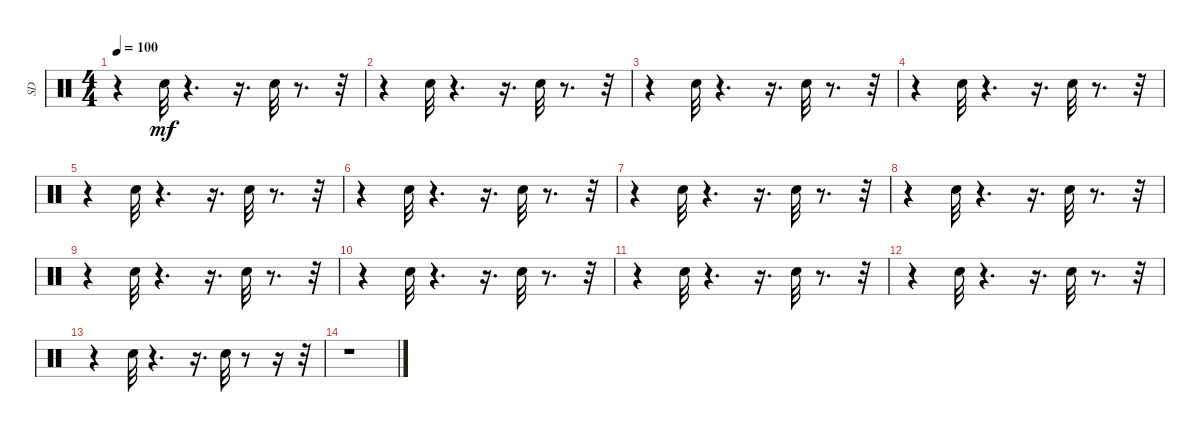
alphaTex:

\track ("SD" "SD") {instrument percussion}
\staff {score}
\articulation defaults
\ts (4 4)
\tempo 100
\clef neutral
\ks c
r.4{dy mf} "Metronome (bell)".32 r.4{d} r.16{d} "Metronome (bell)".32 r.8{d} r.32 |
r.4 "Metronome (bell)".32 r.4{d} r.16{d} "Metronome (bell)".32 r.8{d} r.32 |
r.4 "Metronome (bell)".32 r.4{d} r.16{d} "Metronome (bell)".32 r.8{d} r.32 |
r.4 "Metronome (bell)".32 r.4{d} r.16{d} "Metronome (bell)".32 r.8{d} r.32 |
r.4 "Metronome (bell)".32 r.4{d} r.16{d} "Metronome (bell)".32 r.8{d} r.32 |
r.4 "Metronome (bell)".32 r.4{d} r.16{d} "Metronome (bell)".32 r.8{d} r.32 |
r.4 "Metronome (bell)".32 r.4{d} r.16{d} "Metronome (bell)".32 r.8{d} r.32 |
r.4 "Metronome (bell)".32 r.4{d} r.16{d} "Metronome (bell)".32 r.8{d} r.32 |
r.4 "Metronome (bell)".32 r.4{d} r.16{d} "Metronome (bell)".32 r.8{d} r.32 |
r.4 "Metronome (bell)".32 r.4{d} r.16{d} "Metronome (bell)".32 r.8{d} r.32 |
r.4 "Metronome (bell)".32 r.4{d} r.16{d} "Metronome (bell)".32 r.8{d} r.32 |
r.4 "Metronome (bell)".32 r.4{d} r.16{d} "Metronome (bell)".32 r.8{d} r.32 |
r.4 "Metronome (bell)".32 r.4{d} r.16{d} "Metronome (bell)".32 r.8 r.16 r.32 |
r.1
